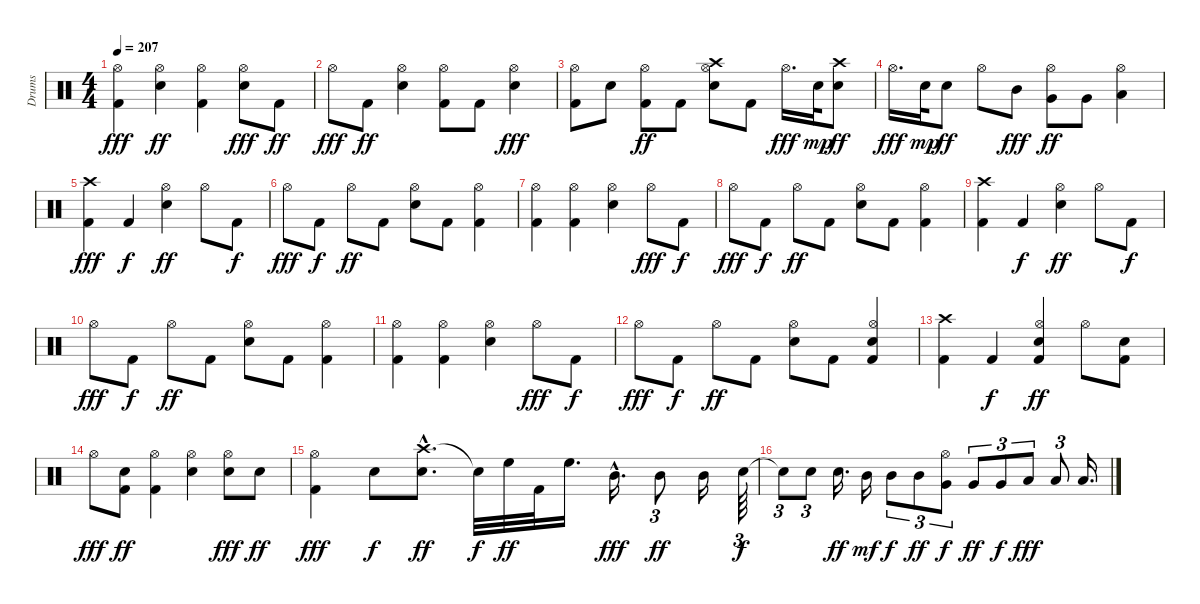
\track ("Drums" "Drums") {instrument percussion}
\staff {score}
\articulation defaults
\ts (4 4)
\tempo 207
\clef neutral
\ks c
("Kick (hit) 2" "Hi-Hat (open)").4{dy fff} ("Snare (hit) 2" "Hi-Hat (open)").4{dy ff} ("Kick (hit) 2" "Hi-Hat (open)").4 ("Snare (hit) 2" "Hi-Hat (open)").8{dy fff} "Kick (hit) 2".8{dy ff} |
"Hi-Hat (open)".8{dy fff} "Kick (hit) 2".8{dy ff} ("Snare (hit) 2" "Hi-Hat (open)").4 ("Kick (hit) 2" "Hi-Hat (open)").8 "Kick (hit) 2".8 ("Snare (hit) 2" "Hi-Hat (open)").4{dy fff} |
("Kick (hit) 2" "Hi-Hat (open)").8 "Snare (hit) 2".8 ("Kick (hit) 2" "Hi-Hat (open)").8{dy ff} "Kick (hit) 2".8 ("Crash high (hit)" "Snare (hit) 2" "Hi-Hat (open)").8 "Kick (hit) 2".8 "Hi-Hat (open)".16{d dy fff} "Snare (hit) 2".32{dy mp} ("Crash high (hit)" "Snare (hit) 2").8{dy ff} |
"Hi-Hat (open)".16{d dy fff} "Snare (hit) 2".32{dy mp} "Snare (hit) 2".8{dy ff} "Hi-Hat (open)".8 "Mid Tom (hit)".8{dy fff} ("Hi-Hat (open)" "Very Low Tom (hit)").8{dy ff} "Very Low Tom (hit)".8 ("Hi-Hat (open)" "Low Floor Tom (hit)").4 |
("Kick (hit) 2" "Crash high (hit)").4{dy fff} "Kick (hit) 2".4{dy f} ("Snare (hit) 2" "Hi-Hat (open)").4{dy ff} "Hi-Hat (open)".8 "Kick (hit) 2".8{dy f} |
"Hi-Hat (open)".8{dy fff} "Kick (hit) 2".8{dy f} "Hi-Hat (open)".8{dy ff} "Kick (hit) 2".8 ("Snare (hit) 2" "Hi-Hat (open)").8 "Kick (hit) 2".8 ("Hi-Hat (open)" "Kick (hit) 2").4 |
("Hi-Hat (open)" "Kick (hit) 2").4 ("Hi-Hat (open)" "Kick (hit) 2").4 ("Snare (hit) 2" "Hi-Hat (open)").4 "Hi-Hat (open)".8{dy fff} "Kick (hit) 2".8{dy f} |
"Hi-Hat (open)".8{dy fff} "Kick (hit) 2".8{dy f} "Hi-Hat (open)".8{dy ff} "Kick (hit) 2".8 ("Snare (hit) 2" "Hi-Hat (open)").8 "Kick (hit) 2".8 ("Hi-Hat (open)" "Kick (hit) 2").4 |
("Crash high (hit)" "Kick (hit) 2").4 "Kick (hit) 2".4{dy f} ("Snare (hit) 2" "Hi-Hat (open)").4{dy ff} "Hi-Hat (open)".8 "Kick (hit) 2".8{dy f} |
"Hi-Hat (open)".8{dy fff} "Kick (hit) 2".8{dy f} "Hi-Hat (open)".8{dy ff} "Kick (hit) 2".8 ("Snare (hit) 2" "Hi-Hat (open)").8 "Kick (hit) 2".8 ("Hi-Hat (open)" "Kick (hit) 2").4 |
("Hi-Hat (open)" "Kick (hit) 2").4 ("Hi-Hat (open)" "Kick (hit) 2").4 ("Snare (hit) 2" "Hi-Hat (open)").4 "Hi-Hat (open)".8{dy fff} "Kick (hit) 2".8{dy f} |
"Hi-Hat (open)".8{dy fff} "Kick (hit) 2".8{dy f} "Hi-Hat (open)".8{dy ff} "Kick (hit) 2".8 ("Snare (hit) 2" "Hi-Hat (open)").8 "Kick (hit) 2".8 ("Snare (hit) 2" "Hi-Hat (open)" "Kick (hit) 2").4 |
("Crash high (hit)" "Kick (hit) 2").4 "Kick (hit) 2".4{dy f} ("Snare (hit) 2" "Hi-Hat (open)" "Kick (hit) 2").4{dy ff} "Hi-Hat (open)".8 ("Snare (hit) 2" "Kick (hit) 2").8 |
"Hi-Hat (open)".8{dy fff} ("Snare (hit) 2" "Kick (hit) 2").8{dy ff} ("Hi-Hat (open)" "Kick (hit) 2").4 ("Snare (hit) 2" "Hi-Hat (open)").4 ("Snare (hit) 2" "Hi-Hat (open)").8{dy fff} "Snare (hit) 2".8{dy ff} |
("Kick (hit) 2" "Hi-Hat (open)").4{dy fff} "Snare (hit) 2".8{dy f} ("Crash high (hit)"{hac} "Snare (hit) 2").8{d dy ff} "Snare (hit)"{t}.32{dy f} "High Floor Tom (hit)".32{dy ff} "Kick (hit) 2".32 "High Floor Tom (hit)".16{d} "Mid Tom (hit)"{hac}.16{d dy fff} "Mid Tom (hit)".8{tu (3 2) dy ff} "Mid Tom (hit)".16 "Snare (hit) 2".64{tu (3 2) dy f} |
"Snare (hit)"{t}.8{tu (3 2)} "Snare (hit) 2".8{tu (3 2)} "Snare (hit) 2".16{d dy ff} "Mid Tom (hit)".16{dy mf} "Mid Tom (hit)".8{tu (3 2) dy f} "Mid Tom (hit)".8{tu (3 2) dy ff} ("Hi-Hat (open)" "Very Low Tom (hit)").8{tu (3 2) dy f} "Very Low Tom (hit)".8{tu (3 2) dy ff} "Very Low Tom (hit)".8{tu (3 2) dy f} "Low Floor Tom (hit)".8{tu (3 2) dy fff} "Low Floor Tom (hit)".8{tu (3 2)} "Low Floor Tom (hit)".16{d}
